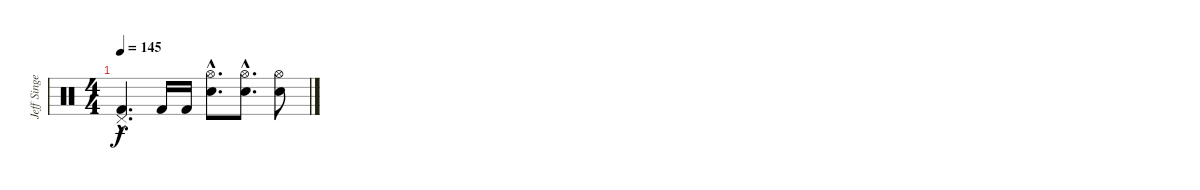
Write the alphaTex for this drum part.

\track ("Jeff Singer" "Jeff Singe") {instrument percussion}
\staff {score}
\articulation defaults
\ts (4 4)
\tempo 145
\clef neutral
\ks c
("Pedal Hi-Hat (hit)"{hac} "Kick (hit) 2"{hac}).4{d dy f} "Kick (hit) 2".16 "Kick (hit) 2".16 ("Hi-Hat (open)"{hac} "Electric Snare (hit)"{hac}).8{d} ("Hi-Hat (open)"{hac} "Electric Snare (hit)"{hac}).8{d} ("Hi-Hat (open)" "Electric Snare (hit)").8
